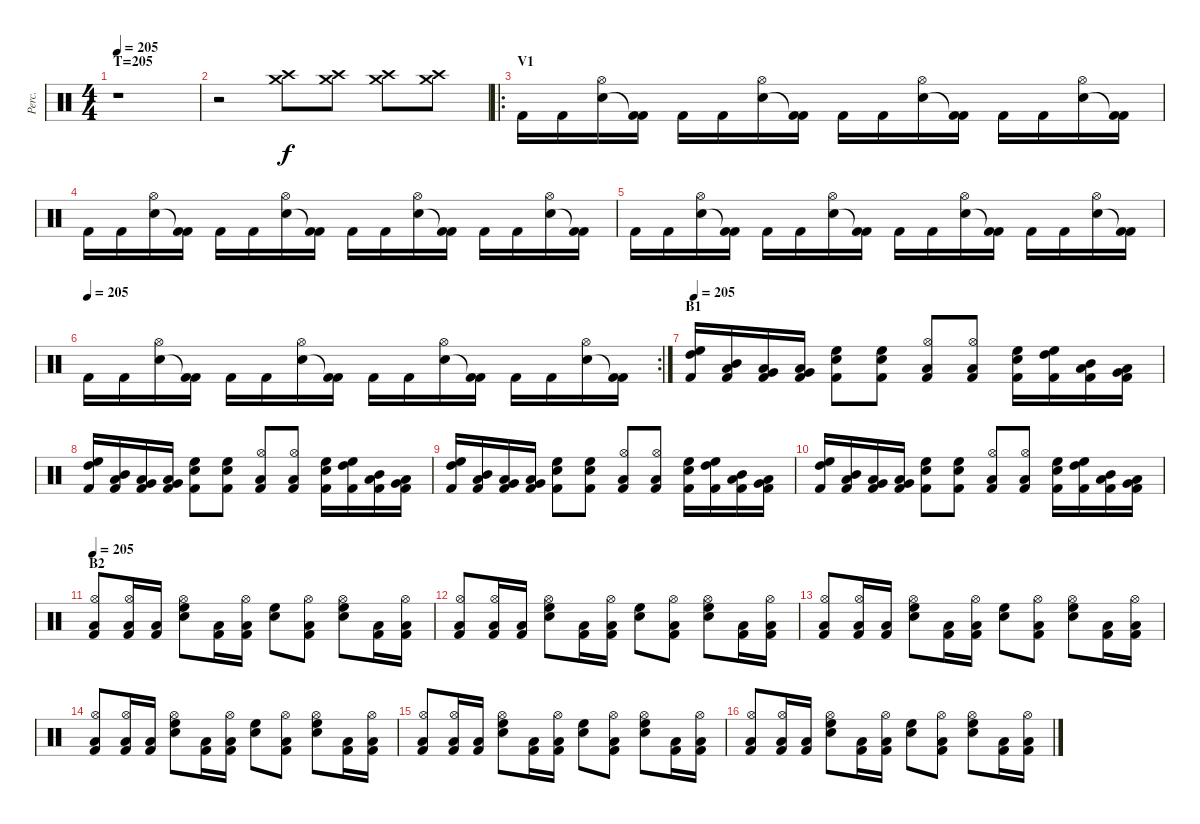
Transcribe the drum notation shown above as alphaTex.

\track ("Perc." "Perc.") {instrument percussion}
\staff {score}
\articulation defaults
\ts (4 4)
\section ("" "T=205")
\tempo 205
\clef neutral
\ks c
r.1{dy f} |
r.2 ("Crash high (hit)" "Crash medium (hit)").8 ("Crash high (hit)" "Crash medium (hit)").8 ("Crash high (hit)" "Crash medium (hit)").8 ("Crash high (hit)" "Crash medium (hit)").8 |
\ro
\section ("" "V1")
"Kick (hit) 2".16 "Kick (hit) 2".16 ("Hi-Hat (open)" "Snare (hit) 2").16 ("Kick (hit) 2" "Kick (hit) 2"{t}).16 "Kick (hit) 2".16 "Kick (hit) 2".16 ("Hi-Hat (open)" "Snare (hit) 2").16 ("Kick (hit) 2" "Kick (hit) 2"{t}).16 "Kick (hit) 2".16 "Kick (hit) 2".16 ("Hi-Hat (open)" "Snare (hit) 2").16 ("Kick (hit) 2" "Kick (hit) 2"{t}).16 "Kick (hit) 2".16 "Kick (hit) 2".16 ("Hi-Hat (open)" "Snare (hit) 2").16 ("Kick (hit) 2" "Kick (hit) 2"{t}).16 |
"Kick (hit) 2".16 "Kick (hit) 2".16 ("Hi-Hat (open)" "Snare (hit) 2").16 ("Kick (hit) 2" "Kick (hit) 2"{t}).16 "Kick (hit) 2".16 "Kick (hit) 2".16 ("Hi-Hat (open)" "Snare (hit) 2").16 ("Kick (hit) 2" "Kick (hit) 2"{t}).16 "Kick (hit) 2".16 "Kick (hit) 2".16 ("Hi-Hat (open)" "Snare (hit) 2").16 ("Kick (hit) 2" "Kick (hit) 2"{t}).16 "Kick (hit) 2".16 "Kick (hit) 2".16 ("Hi-Hat (open)" "Snare (hit) 2").16 ("Kick (hit) 2" "Kick (hit) 2"{t}).16 |
"Kick (hit) 2".16 "Kick (hit) 2".16 ("Hi-Hat (open)" "Snare (hit) 2").16 ("Kick (hit) 2" "Kick (hit) 2"{t}).16 "Kick (hit) 2".16 "Kick (hit) 2".16 ("Hi-Hat (open)" "Snare (hit) 2").16 ("Kick (hit) 2" "Kick (hit) 2"{t}).16 "Kick (hit) 2".16 "Kick (hit) 2".16 ("Hi-Hat (open)" "Snare (hit) 2").16 ("Kick (hit) 2" "Kick (hit) 2"{t}).16 "Kick (hit) 2".16 "Kick (hit) 2".16 ("Hi-Hat (open)" "Snare (hit) 2").16 ("Kick (hit) 2" "Kick (hit) 2"{t}).16 |
\rc 2
\tempo (205)
"Kick (hit) 2".16 "Kick (hit) 2".16 ("Hi-Hat (open)" "Snare (hit) 2").16 ("Kick (hit) 2" "Kick (hit) 2"{t}).16 "Kick (hit) 2".16 "Kick (hit) 2".16 ("Hi-Hat (open)" "Snare (hit) 2").16 ("Kick (hit) 2" "Kick (hit) 2"{t}).16 "Kick (hit) 2".16 "Kick (hit) 2".16 ("Hi-Hat (open)" "Snare (hit) 2").16 ("Kick (hit) 2" "Kick (hit) 2"{t}).16 "Kick (hit) 2".16 "Kick (hit) 2".16 ("Hi-Hat (open)" "Snare (hit) 2").16 ("Kick (hit) 2" "Kick (hit) 2"{t}).16 |
\section ("" "B1")
\tempo 205
("Kick (hit) 2" "High Floor Tom (hit)" "High Tom (hit)").16 ("Kick (hit) 2" "Mid Tom (hit)" "Low Tom (hit)").16 ("Kick (hit) 2" "Low Tom (hit)" "Very Low Tom (hit)").16 ("Kick (hit) 2" "Very Low Tom (hit)" "Low Floor Tom (hit)").16 ("Kick (hit) 2" "High Floor Tom (hit)" "Snare (hit) 2").8 ("Kick (hit) 2" "High Floor Tom (hit)" "Snare (hit) 2").8 ("Hi-Hat (open)" "Low Floor Tom (hit)" "Kick (hit) 2").8 ("Hi-Hat (open)" "Low Floor Tom (hit)" "Kick (hit) 2").8 ("Kick (hit) 2" "High Floor Tom (hit)" "Snare (hit) 2").16 ("Kick (hit) 2" "High Floor Tom (hit)" "High Tom (hit)").16 ("Kick (hit) 2" "Mid Tom (hit)" "Low Tom (hit)").16 ("Kick (hit) 2" "Low Tom (hit)" "Very Low Tom (hit)").16 |
("Kick (hit) 2" "High Floor Tom (hit)" "High Tom (hit)").16 ("Kick (hit) 2" "Mid Tom (hit)" "Low Tom (hit)").16 ("Kick (hit) 2" "Low Tom (hit)" "Very Low Tom (hit)").16 ("Kick (hit) 2" "Very Low Tom (hit)" "Low Floor Tom (hit)").16 ("Kick (hit) 2" "High Floor Tom (hit)" "Snare (hit) 2").8 ("Kick (hit) 2" "High Floor Tom (hit)" "Snare (hit) 2").8 ("Hi-Hat (open)" "Low Floor Tom (hit)" "Kick (hit) 2").8 ("Hi-Hat (open)" "Low Floor Tom (hit)" "Kick (hit) 2").8 ("Kick (hit) 2" "High Floor Tom (hit)" "Snare (hit) 2").16 ("Kick (hit) 2" "High Floor Tom (hit)" "High Tom (hit)").16 ("Kick (hit) 2" "Mid Tom (hit)" "Low Tom (hit)").16 ("Kick (hit) 2" "Low Tom (hit)" "Very Low Tom (hit)").16 |
("Kick (hit) 2" "High Floor Tom (hit)" "High Tom (hit)").16 ("Kick (hit) 2" "Mid Tom (hit)" "Low Tom (hit)").16 ("Kick (hit) 2" "Low Tom (hit)" "Very Low Tom (hit)").16 ("Kick (hit) 2" "Very Low Tom (hit)" "Low Floor Tom (hit)").16 ("Kick (hit) 2" "High Floor Tom (hit)" "Snare (hit) 2").8 ("Kick (hit) 2" "High Floor Tom (hit)" "Snare (hit) 2").8 ("Hi-Hat (open)" "Low Floor Tom (hit)" "Kick (hit) 2").8 ("Hi-Hat (open)" "Low Floor Tom (hit)" "Kick (hit) 2").8 ("Kick (hit) 2" "High Floor Tom (hit)" "Snare (hit) 2").16 ("Kick (hit) 2" "High Floor Tom (hit)" "High Tom (hit)").16 ("Kick (hit) 2" "Mid Tom (hit)" "Low Tom (hit)").16 ("Kick (hit) 2" "Low Tom (hit)" "Very Low Tom (hit)").16 |
("Kick (hit) 2" "High Floor Tom (hit)" "High Tom (hit)").16 ("Kick (hit) 2" "Mid Tom (hit)" "Low Tom (hit)").16 ("Kick (hit) 2" "Low Tom (hit)" "Very Low Tom (hit)").16 ("Kick (hit) 2" "Very Low Tom (hit)" "Low Floor Tom (hit)").16 ("Kick (hit) 2" "High Floor Tom (hit)" "Snare (hit) 2").8 ("Kick (hit) 2" "High Floor Tom (hit)" "Snare (hit) 2").8 ("Hi-Hat (open)" "Low Floor Tom (hit)" "Kick (hit) 2").8 ("Hi-Hat (open)" "Low Floor Tom (hit)" "Kick (hit) 2").8 ("Kick (hit) 2" "High Floor Tom (hit)" "Snare (hit) 2").16 ("Kick (hit) 2" "High Floor Tom (hit)" "High Tom (hit)").16 ("Kick (hit) 2" "Mid Tom (hit)" "Low Tom (hit)").16 ("Kick (hit) 2" "Low Tom (hit)" "Very Low Tom (hit)").16 |
\section ("" "B2")
\tempo 205
("Hi-Hat (open)" "Low Tom (hit)" "Kick (hit) 2").8 ("Hi-Hat (open)" "Low Tom (hit)" "Kick (hit) 2").16 ("Low Tom (hit)" "Kick (hit) 2").16 ("Hi-Hat (open)" "High Floor Tom (hit)" "Snare (hit) 2").8 ("Low Tom (hit)" "Kick (hit) 2").16 ("Hi-Hat (open)" "Low Tom (hit)" "Kick (hit) 2").16 ("High Floor Tom (hit)" "Snare (hit) 2").8 ("Hi-Hat (open)" "Low Tom (hit)" "Kick (hit) 2").8 ("Hi-Hat (open)" "High Floor Tom (hit)" "Snare (hit) 2").8 ("Low Tom (hit)" "Kick (hit) 2").16 ("Hi-Hat (open)" "Low Tom (hit)" "Kick (hit) 2").16 |
("Hi-Hat (open)" "Low Tom (hit)" "Kick (hit) 2").8 ("Hi-Hat (open)" "Low Tom (hit)" "Kick (hit) 2").16 ("Low Tom (hit)" "Kick (hit) 2").16 ("Hi-Hat (open)" "High Floor Tom (hit)" "Snare (hit) 2").8 ("Low Tom (hit)" "Kick (hit) 2").16 ("Hi-Hat (open)" "Low Tom (hit)" "Kick (hit) 2").16 ("High Floor Tom (hit)" "Snare (hit) 2").8 ("Hi-Hat (open)" "Low Tom (hit)" "Kick (hit) 2").8 ("Hi-Hat (open)" "High Floor Tom (hit)" "Snare (hit) 2").8 ("Low Tom (hit)" "Kick (hit) 2").16 ("Hi-Hat (open)" "Low Tom (hit)" "Kick (hit) 2").16 |
("Hi-Hat (open)" "Low Tom (hit)" "Kick (hit) 2").8 ("Hi-Hat (open)" "Low Tom (hit)" "Kick (hit) 2").16 ("Low Tom (hit)" "Kick (hit) 2").16 ("Hi-Hat (open)" "High Floor Tom (hit)" "Snare (hit) 2").8 ("Low Tom (hit)" "Kick (hit) 2").16 ("Hi-Hat (open)" "Low Tom (hit)" "Kick (hit) 2").16 ("High Floor Tom (hit)" "Snare (hit) 2").8 ("Hi-Hat (open)" "Low Tom (hit)" "Kick (hit) 2").8 ("Hi-Hat (open)" "High Floor Tom (hit)" "Snare (hit) 2").8 ("Low Tom (hit)" "Kick (hit) 2").16 ("Hi-Hat (open)" "Low Tom (hit)" "Kick (hit) 2").16 |
("Hi-Hat (open)" "Low Tom (hit)" "Kick (hit) 2").8 ("Hi-Hat (open)" "Low Tom (hit)" "Kick (hit) 2").16 ("Low Tom (hit)" "Kick (hit) 2").16 ("Hi-Hat (open)" "High Floor Tom (hit)" "Snare (hit) 2").8 ("Low Tom (hit)" "Kick (hit) 2").16 ("Hi-Hat (open)" "Low Tom (hit)" "Kick (hit) 2").16 ("High Floor Tom (hit)" "Snare (hit) 2").8 ("Hi-Hat (open)" "Low Tom (hit)" "Kick (hit) 2").8 ("Hi-Hat (open)" "High Floor Tom (hit)" "Snare (hit) 2").8 ("Low Tom (hit)" "Kick (hit) 2").16 ("Hi-Hat (open)" "Low Tom (hit)" "Kick (hit) 2").16 |
("Hi-Hat (open)" "Low Tom (hit)" "Kick (hit) 2").8 ("Hi-Hat (open)" "Low Tom (hit)" "Kick (hit) 2").16 ("Low Tom (hit)" "Kick (hit) 2").16 ("Hi-Hat (open)" "High Floor Tom (hit)" "Snare (hit) 2").8 ("Low Tom (hit)" "Kick (hit) 2").16 ("Hi-Hat (open)" "Low Tom (hit)" "Kick (hit) 2").16 ("High Floor Tom (hit)" "Snare (hit) 2").8 ("Hi-Hat (open)" "Low Tom (hit)" "Kick (hit) 2").8 ("Hi-Hat (open)" "High Floor Tom (hit)" "Snare (hit) 2").8 ("Low Tom (hit)" "Kick (hit) 2").16 ("Hi-Hat (open)" "Low Tom (hit)" "Kick (hit) 2").16 |
("Hi-Hat (open)" "Low Tom (hit)" "Kick (hit) 2").8 ("Hi-Hat (open)" "Low Tom (hit)" "Kick (hit) 2").16 ("Low Tom (hit)" "Kick (hit) 2").16 ("Hi-Hat (open)" "High Floor Tom (hit)" "Snare (hit) 2").8 ("Low Tom (hit)" "Kick (hit) 2").16 ("Hi-Hat (open)" "Low Tom (hit)" "Kick (hit) 2").16 ("High Floor Tom (hit)" "Snare (hit) 2").8 ("Hi-Hat (open)" "Low Tom (hit)" "Kick (hit) 2").8 ("Hi-Hat (open)" "High Floor Tom (hit)" "Snare (hit) 2").8 ("Low Tom (hit)" "Kick (hit) 2").16 ("Hi-Hat (open)" "Low Tom (hit)" "Kick (hit) 2").16
